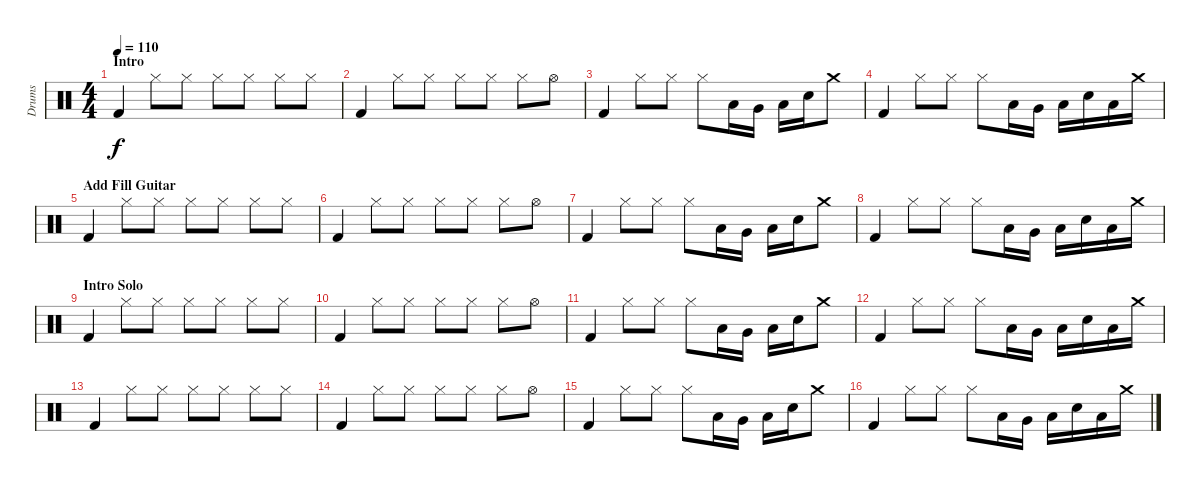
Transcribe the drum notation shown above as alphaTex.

\track ("Drums" "Drums") {instrument percussion}
\staff {score}
\articulation defaults
\ts (4 4)
\section ("" "Intro")
\tempo 110
\clef neutral
\ks c "Kick (hit) 2".4{dy f} "Hi-Hat (closed)".8 "Hi-Hat (closed)".8 "Hi-Hat (closed)".8 "Hi-Hat (closed)".8 "Hi-Hat (closed)".8 "Hi-Hat (closed)".8
|
"Kick (hit) 2".4 "Hi-Hat (closed)".8 "Hi-Hat (closed)".8 "Hi-Hat (closed)".8 "Hi-Hat (closed)".8 "Hi-Hat (closed)".8 "Hi-Hat (open)".8 |
"Kick (hit) 2".4 "Hi-Hat (closed)".8 "Hi-Hat (closed)".8 "Hi-Hat (closed)".8 "Low Tom (hit)".16 "Very Low Tom (hit)".16 "Low Floor Tom (hit)".16 "Snare (hit) 2".16 "Crash medium (hit)".8 |
"Kick (hit) 2".4 "Hi-Hat (closed)".8 "Hi-Hat (closed)".8 "Hi-Hat (closed)".8 "Low Tom (hit)".16 "Very Low Tom (hit)".16 "Low Floor Tom (hit)".16 "Snare (hit) 2".16 "Low Floor Tom (hit)".16 "Crash medium (hit)".16 |
\section ("" "Add Fill Guitar")
"Kick (hit) 2".4 "Hi-Hat (closed)".8 "Hi-Hat (closed)".8 "Hi-Hat (closed)".8 "Hi-Hat (closed)".8 "Hi-Hat (closed)".8 "Hi-Hat (closed)".8 |
"Kick (hit) 2".4 "Hi-Hat (closed)".8 "Hi-Hat (closed)".8 "Hi-Hat (closed)".8 "Hi-Hat (closed)".8 "Hi-Hat (closed)".8 "Hi-Hat (open)".8 |
"Kick (hit) 2".4 "Hi-Hat (closed)".8 "Hi-Hat (closed)".8 "Hi-Hat (closed)".8 "Low Tom (hit)".16 "Very Low Tom (hit)".16 "Low Floor Tom (hit)".16 "Snare (hit) 2".16 "Crash medium (hit)".8 |
"Kick (hit) 2".4 "Hi-Hat (closed)".8 "Hi-Hat (closed)".8 "Hi-Hat (closed)".8 "Low Tom (hit)".16 "Very Low Tom (hit)".16 "Low Floor Tom (hit)".16 "Snare (hit) 2".16 "Low Floor Tom (hit)".16 "Crash medium (hit)".16 |
\section ("" "Intro Solo")
"Kick (hit) 2".4 "Hi-Hat (closed)".8 "Hi-Hat (closed)".8 "Hi-Hat (closed)".8 "Hi-Hat (closed)".8 "Hi-Hat (closed)".8 "Hi-Hat (closed)".8 |
"Kick (hit) 2".4 "Hi-Hat (closed)".8 "Hi-Hat (closed)".8 "Hi-Hat (closed)".8 "Hi-Hat (closed)".8 "Hi-Hat (closed)".8 "Hi-Hat (open)".8 |
"Kick (hit) 2".4 "Hi-Hat (closed)".8 "Hi-Hat (closed)".8 "Hi-Hat (closed)".8 "Low Tom (hit)".16 "Very Low Tom (hit)".16 "Low Floor Tom (hit)".16 "Snare (hit) 2".16 "Crash medium (hit)".8 |
"Kick (hit) 2".4 "Hi-Hat (closed)".8 "Hi-Hat (closed)".8 "Hi-Hat (closed)".8 "Low Tom (hit)".16 "Very Low Tom (hit)".16 "Low Floor Tom (hit)".16 "Snare (hit) 2".16 "Low Floor Tom (hit)".16 "Crash medium (hit)".16 |
"Kick (hit) 2".4 "Hi-Hat (closed)".8 "Hi-Hat (closed)".8 "Hi-Hat (closed)".8 "Hi-Hat (closed)".8 "Hi-Hat (closed)".8 "Hi-Hat (closed)".8 |
"Kick (hit) 2".4 "Hi-Hat (closed)".8 "Hi-Hat (closed)".8 "Hi-Hat (closed)".8 "Hi-Hat (closed)".8 "Hi-Hat (closed)".8 "Hi-Hat (open)".8 |
"Kick (hit) 2".4 "Hi-Hat (closed)".8 "Hi-Hat (closed)".8 "Hi-Hat (closed)".8 "Low Tom (hit)".16 "Very Low Tom (hit)".16 "Low Floor Tom (hit)".16 "Snare (hit) 2".16 "Crash medium (hit)".8 |
"Kick (hit) 2".4 "Hi-Hat (closed)".8 "Hi-Hat (closed)".8 "Hi-Hat (closed)".8 "Low Tom (hit)".16 "Very Low Tom (hit)".16 "Low Floor Tom (hit)".16 "Snare (hit) 2".16 "Low Floor Tom (hit)".16 "Crash medium (hit)".16
